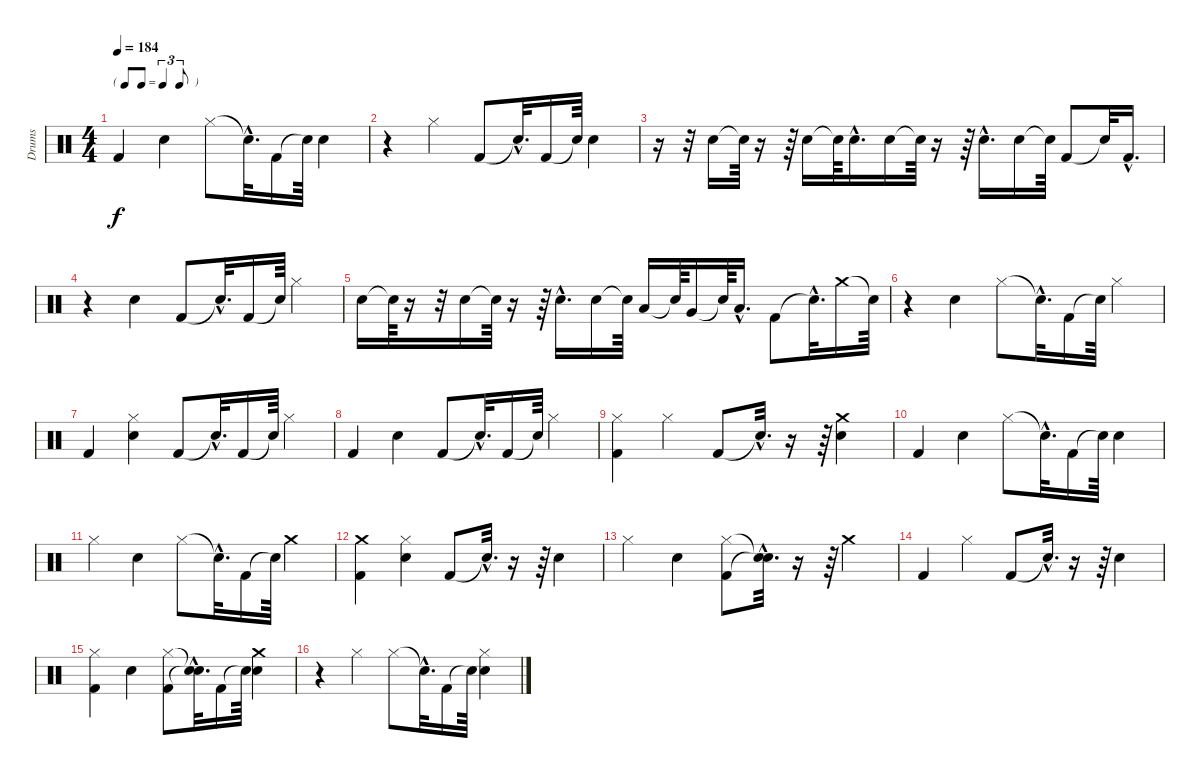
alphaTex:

\track ("Drums" "Drums") {instrument percussion}
\staff {score}
\articulation defaults
\ts (4 4)
\tf triplet8th
\tempo 184
\clef neutral
\ks c "Kick (hit) 2".4{dy f} "Snare (hit) 2".4 "Hi-Hat (closed)".8 "Snare (hit)"{hac t}.32{d} "Kick (hit) 2".16 "Snare (hit)"{t}.64 "Snare (hit) 2".4
|
r.4 "Hi-Hat (closed)".4 "Kick (hit) 2".8 "Snare (hit)"{hac t}.32{d} "Kick (hit) 2".16 "Snare (hit)"{t}.64 "Snare (hit) 2".4 |
r.16 r.32 "Snare (hit) 2".16 "Snare (hit)"{t}.64 r.16 r.64 "Snare (hit) 2".16 "Snare (hit)"{t}.64 "Snare (hit) 2"{hac}.16{d} "Snare (hit) 2".16 "Snare (hit)"{t}.64 r.16 r.64 "Snare (hit) 2"{hac}.16{d} "Snare (hit) 2".16 "Snare (hit)"{t}.64 "Kick (hit) 2".8 "Snare (hit)"{t}.32 "Kick (hit) 2"{hac}.16{d} |
r.4 "Snare (hit) 2".4 "Kick (hit) 2".8 "Snare (hit)"{hac t}.32{d} "Kick (hit) 2".16 "Snare (hit)"{t}.64 "Hi-Hat (closed)".4 |
"Snare (hit) 2".16 "Snare (hit)"{t}.64 r.16 r.32 "Snare (hit) 2".16 "Snare (hit)"{t}.64 r.16 r.64 "Snare (hit) 2"{hac}.16{d} "Snare (hit) 2".16 "Snare (hit)"{t}.64 "Low Tom (hit)".16 "Snare (hit)"{t}.64 "Very Low Tom (hit)".16 "Snare (hit)"{t}.64 "Low Floor Tom (hit)"{hac}.16{d} "Kick (hit) 2".8 "Snare (hit)"{hac t}.32{d} "Crash medium (hit)".16 "Snare (hit)"{t}.64 |
r.4 "Snare (hit) 2".4 "Hi-Hat (closed)".8 "Snare (hit)"{hac t}.32{d} "Kick (hit) 2".16 "Snare (hit)"{t}.64 "Hi-Hat (closed)".4 |
"Kick (hit) 2".4 ("Hi-Hat (closed)" "Snare (hit) 2").4 "Kick (hit) 2".8 "Snare (hit)"{hac t}.32{d} "Kick (hit) 2".16 "Snare (hit)"{t}.64 "Hi-Hat (closed)".4 |
"Kick (hit) 2".4 "Snare (hit) 2".4 "Kick (hit) 2".8 "Snare (hit)"{hac t}.32{d} "Kick (hit) 2".16 "Snare (hit)"{t}.64 "Hi-Hat (closed)".4 |
("Hi-Hat (closed)" "Kick (hit) 2").4 "Hi-Hat (closed)".4 "Kick (hit) 2".8 "Snare (hit)"{hac t}.32{d} r.16 r.64 ("Crash medium (hit)" "Snare (hit) 2").4 |
"Kick (hit) 2".4 "Snare (hit) 2".4 "Hi-Hat (closed)".8 "Snare (hit)"{hac t}.32{d} "Kick (hit) 2".16 "Snare (hit)"{t}.64 "Snare (hit) 2".4 |
"Hi-Hat (closed)".4 "Snare (hit) 2".4 "Hi-Hat (closed)".8 "Snare (hit)"{hac t}.32{d} "Kick (hit) 2".16 "Snare (hit)"{t}.64 "Crash medium (hit)".4 |
("Crash medium (hit)" "Kick (hit) 2").4 ("Hi-Hat (closed)" "Snare (hit) 2").4 "Kick (hit) 2".8 "Snare (hit)"{hac t}.32{d} r.16 r.64 "Snare (hit) 2".4 |
"Hi-Hat (closed)".4 "Snare (hit) 2".4 ("Hi-Hat (closed)" "Kick (hit) 2").8 ("Snare (hit)"{hac t} "Snare (hit)"{hac t}).32{d} r.16 r.64 "Crash medium (hit)".4 |
"Kick (hit) 2".4 "Hi-Hat (closed)".4 "Kick (hit) 2".8 "Snare (hit)"{hac t}.32{d} r.16 r.64 "Snare (hit) 2".4 |
("Hi-Hat (closed)" "Kick (hit) 2").4 "Snare (hit) 2".4 ("Hi-Hat (closed)" "Kick (hit) 2").8 ("Snare (hit)"{hac t} "Snare (hit)"{hac t}).32{d} "Kick (hit) 2".16 "Snare (hit)"{t}.64 ("Crash medium (hit)" "Snare (hit) 2").4 |
r.4 "Hi-Hat (closed)".4 "Hi-Hat (closed)".8 "Snare (hit)"{hac t}.32{d} "Kick (hit) 2".16 "Snare (hit)"{t}.64 ("Hi-Hat (closed)" "Snare (hit) 2").4
